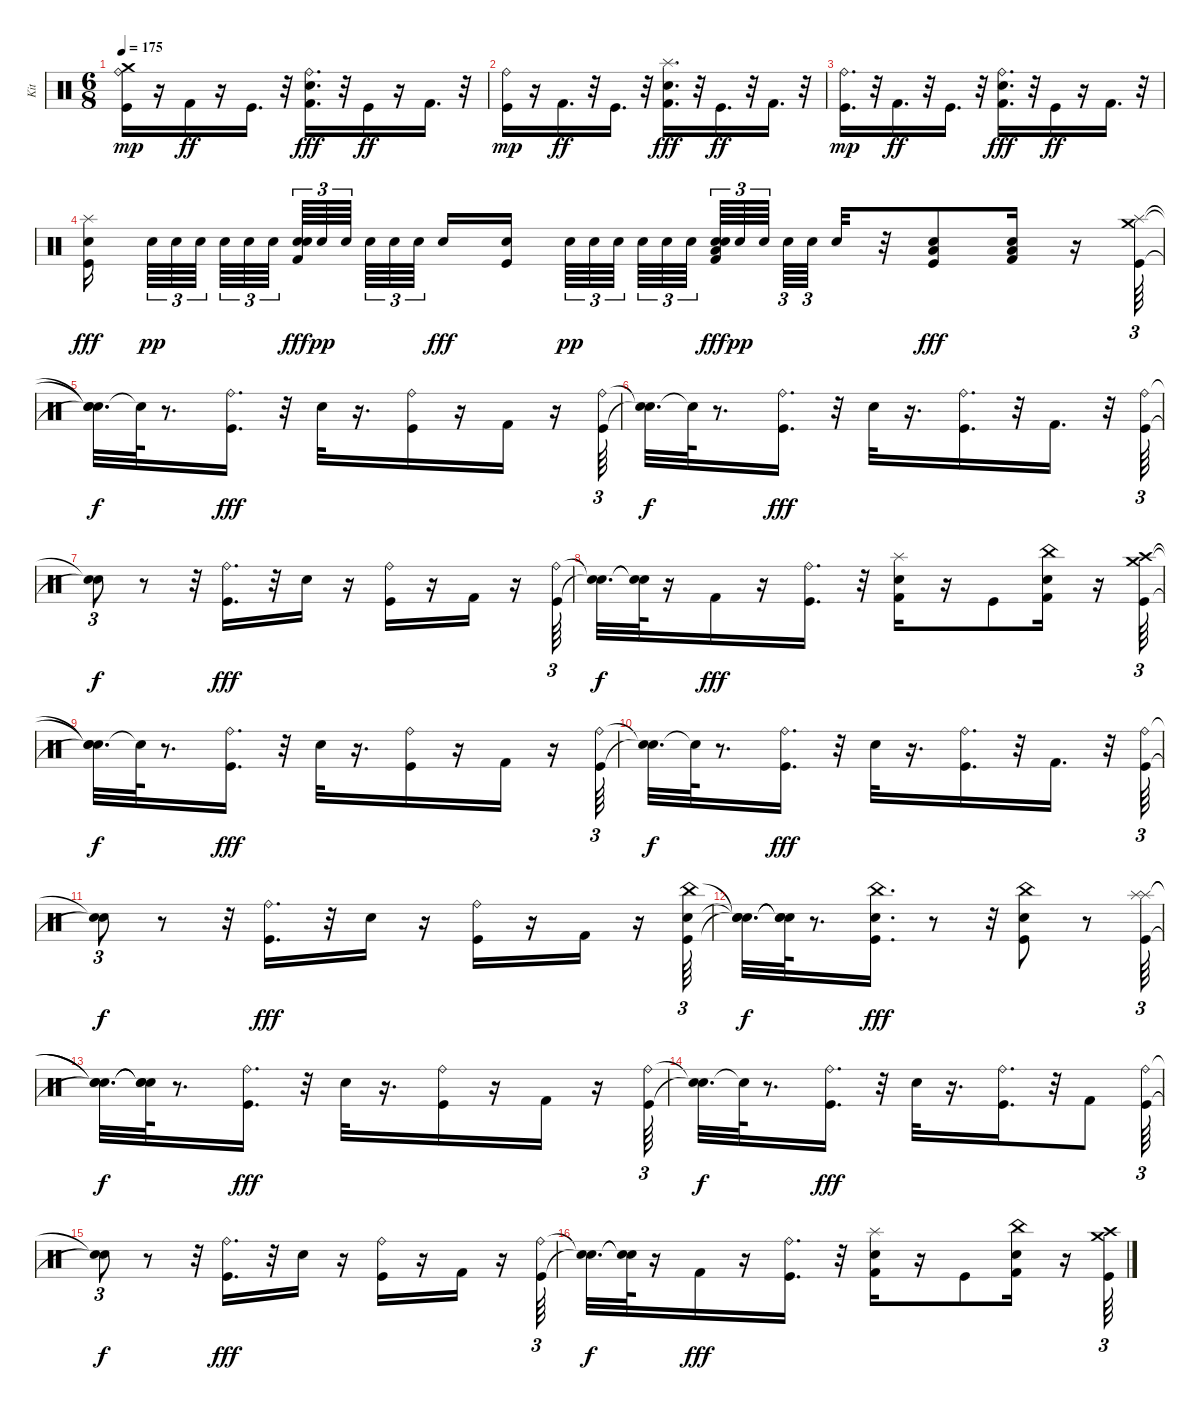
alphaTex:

\track ("Kit" "Kit") {instrument percussion}
\staff {score}
\articulation defaults
\ts (6 8)
\tempo 175
\clef neutral
\ks c
("Kick (hit)" "Ride (bell)" "Crash medium (hit)").16{dy mp} r.16 "Kick (hit) 2".16{dy ff} r.16 "Kick (hit)".16{d} r.32 ("Kick (hit) 2" "Snare (hit) 2" "Ride (bell)").16{d dy fff} r.32 "Kick (hit)".16{dy ff} r.16 "Kick (hit) 2".16{d} r.32 |
("Kick (hit)" "Ride (bell)").16{dy mp} r.16 "Kick (hit) 2".16{d dy ff} r.32 "Kick (hit)".16{d} r.32 ("Kick (hit) 2" "Snare (hit) 2" "Splash (hit)").16{d dy fff} r.32 "Kick (hit)".16{d dy ff} r.32 "Kick (hit) 2".16{d} r.32 |
("Kick (hit)" "Ride (bell)").16{d dy mp} r.32 "Kick (hit) 2".16{d dy ff} r.32 "Kick (hit)".16{d} r.32 ("Kick (hit) 2" "Snare (hit) 2" "Ride (bell)").16{d dy fff} r.32 "Kick (hit)".16{dy ff} r.16 "Kick (hit) 2".16{d} r.32 |
("Kick (hit)" "Snare (hit) 2" "Splash (hit)").16{dy fff beam splitsecondary} "Snare (hit) 2".64{tu (3 2) dy pp} "Snare (hit) 2".64{tu (3 2)} "Snare (hit) 2".64{tu (3 2) beam splitsecondary} "Snare (hit) 2".64{tu (3 2)} "Snare (hit) 2".64{tu (3 2)} "Snare (hit) 2".64{tu (3 2) beam splitsecondary} ("Kick (hit) 2" "Snare (hit) 2" "Snare (hit) 2").64{tu (3 2) dy fff} "Snare (hit) 2".64{tu (3 2) dy pp} "Snare (hit) 2".64{tu (3 2) beam splitsecondary} "Snare (hit) 2".64{tu (3 2)} "Snare (hit) 2".64{tu (3 2)} "Snare (hit) 2".64{tu (3 2) beam splitsecondary} "Snare (hit) 2".16{dy fff} ("Kick (hit)" "Snare (hit) 2").16{beam splitsecondary} "Snare (hit) 2".64{tu (3 2) dy pp} "Snare (hit) 2".64{tu (3 2)} "Snare (hit) 2".64{tu (3 2) beam splitsecondary} "Snare (hit) 2".64{tu (3 2)} "Snare (hit) 2".64{tu (3 2)} "Snare (hit) 2".64{tu (3 2)} ("Kick (hit) 2" "Snare (hit) 2" "Snare (hit) 2" "Low Floor Tom (hit)").64{tu (3 2) dy fff} "Snare (hit) 2".64{tu (3 2) dy pp} "Snare (hit) 2".64{tu (3 2) beam splitsecondary} "Snare (hit) 2".64{tu (3 2)} "Snare (hit) 2".64{tu (3 2) beam splitsecondary} "Snare (hit) 2".32 r.32 ("Kick (hit)" "Snare (hit) 2" "Low Floor Tom (hit)").8{dy fff} ("Kick (hit) 2" "Snare (hit) 2" "Low Floor Tom (hit)").16 r.16 ("Kick (hit)" "Splash (hit)" "Crash medium (hit)").64{tu (3 2)} |
("Snare (hit)"{t} "Snare (hit)"{t} "Snare (hit)"{t}).32{d dy f} "Snare (hit)"{t}.64 r.8{d} ("Kick (hit)" "Ride (bell)").16{d dy fff} r.32 "Snare (hit) 2".32 r.16{d} ("Kick (hit)" "Ride (bell)").16 r.16 "Kick (hit) 2".16 r.16 ("Kick (hit)" "Ride (bell)").64{tu (3 2)} |
("Snare (hit)"{t} "Snare (hit)"{t}).32{d dy f} "Snare (hit)"{t}.64 r.8{d} ("Kick (hit)" "Ride (bell)").16{d dy fff} r.32 "Snare (hit) 2".32 r.16{d} ("Kick (hit)" "Ride (bell)").16{d} r.32 "Kick (hit) 2".16{d} r.32 ("Kick (hit)" "Ride (bell)").64{tu (3 2)} |
("Snare (hit)"{t} "Snare (hit)"{t}).8{tu (3 2) dy f} r.8 r.32 ("Kick (hit)" "Ride (bell)").16{d dy fff} r.32 "Snare (hit) 2".16 r.16 ("Kick (hit)" "Ride (bell)").16 r.16 "Kick (hit) 2".16 r.16 ("Kick (hit)" "Ride (bell)").64{tu (3 2)} |
("Snare (hit)"{t} "Snare (hit)"{t}).32{d dy f} ("Snare (hit)"{t} "Snare (hit)"{t}).64 r.16 "Kick (hit) 2".16{dy fff} r.16 ("Kick (hit)" "Ride (bell)").16{d} r.32 ("Kick (hit) 2" "Snare (hit) 2" "Splash (hit)").16 r.16 "Kick (hit)".8 ("Kick (hit) 2" "Snare (hit) 2" "China (hit)").16 r.16 ("Kick (hit)" "Crash high (hit)" "Crash medium (hit)").64{tu (3 2)} |
("Snare (hit)"{t} "Snare (hit)"{t} "Snare (hit)"{t}).32{d dy f} "Snare (hit)"{t}.64 r.8{d} ("Kick (hit)" "Ride (bell)").16{d dy fff} r.32 "Snare (hit) 2".32 r.16{d} ("Kick (hit)" "Ride (bell)").16 r.16 "Kick (hit) 2".16 r.16 ("Kick (hit)" "Ride (bell)").64{tu (3 2)} |
("Snare (hit)"{t} "Snare (hit)"{t}).32{d dy f} "Snare (hit)"{t}.64 r.8{d} ("Kick (hit)" "Ride (bell)").16{d dy fff} r.32 "Snare (hit) 2".32 r.16{d} ("Kick (hit)" "Ride (bell)").16{d} r.32 "Kick (hit) 2".16{d} r.32 ("Kick (hit)" "Ride (bell)").64{tu (3 2)} |
("Snare (hit)"{t} "Snare (hit)"{t}).8{tu (3 2) dy f} r.8 r.32 ("Kick (hit)" "Ride (bell)").16{d dy fff} r.32 "Snare (hit) 2".16 r.16 ("Kick (hit)" "Ride (bell)").16 r.16 "Kick (hit) 2".16 r.16 ("Kick (hit)" "Snare (hit) 2" "China (hit)").64{tu (3 2)} |
("Snare (hit)"{t} "Snare (hit)"{t} "Snare (hit)"{t}).32{d dy f} ("Snare (hit)"{t} "Snare (hit)"{t} "Snare (hit)"{t}).64 r.8{d} ("Kick (hit)" "Snare (hit) 2" "China (hit)").16{d dy fff} r.8 r.32 ("Kick (hit)" "Snare (hit) 2" "China (hit)").8 r.8 ("Kick (hit)" "Splash (hit)" "Splash (hit)").64{tu (3 2)} |
("Snare (hit)"{t} "Snare (hit)"{t} "Snare (hit)"{t}).32{d dy f} ("Snare (hit)"{t} "Snare (hit)"{t} "Snare (hit)"{t}).64 r.8{d} ("Kick (hit)" "Ride (bell)").16{d dy fff} r.32 "Snare (hit) 2".32 r.16{d} ("Kick (hit)" "Ride (bell)").16 r.16 "Kick (hit) 2".16 r.16 ("Kick (hit)" "Ride (bell)").64{tu (3 2)} |
("Snare (hit)"{t} "Snare (hit)"{t}).32{d dy f} "Snare (hit)"{t}.64 r.8{d} ("Kick (hit)" "Ride (bell)").16{d dy fff} r.32 "Snare (hit) 2".32 r.16{d} ("Kick (hit)" "Ride (bell)").16{d} r.32 "Kick (hit) 2".8 ("Kick (hit)" "Ride (bell)").64{tu (3 2)} |
("Snare (hit)"{t} "Snare (hit)"{t}).8{tu (3 2) dy f} r.8 r.32 ("Kick (hit)" "Ride (bell)").16{d dy fff} r.32 "Snare (hit) 2".16 r.16 ("Kick (hit)" "Ride (bell)").16 r.16 "Kick (hit) 2".16 r.16 ("Kick (hit)" "Ride (bell)").64{tu (3 2)} |
("Snare (hit)"{t} "Snare (hit)"{t}).32{d dy f} ("Snare (hit)"{t} "Snare (hit)"{t}).64 r.16 "Kick (hit) 2".16{dy fff} r.16 ("Kick (hit)" "Ride (bell)").16{d} r.32 ("Kick (hit) 2" "Snare (hit) 2" "Splash (hit)").16 r.16 "Kick (hit)".8 ("Kick (hit) 2" "Snare (hit) 2" "China (hit)").16 r.16 ("Kick (hit)" "Crash high (hit)" "Crash medium (hit)").64{tu (3 2)}
